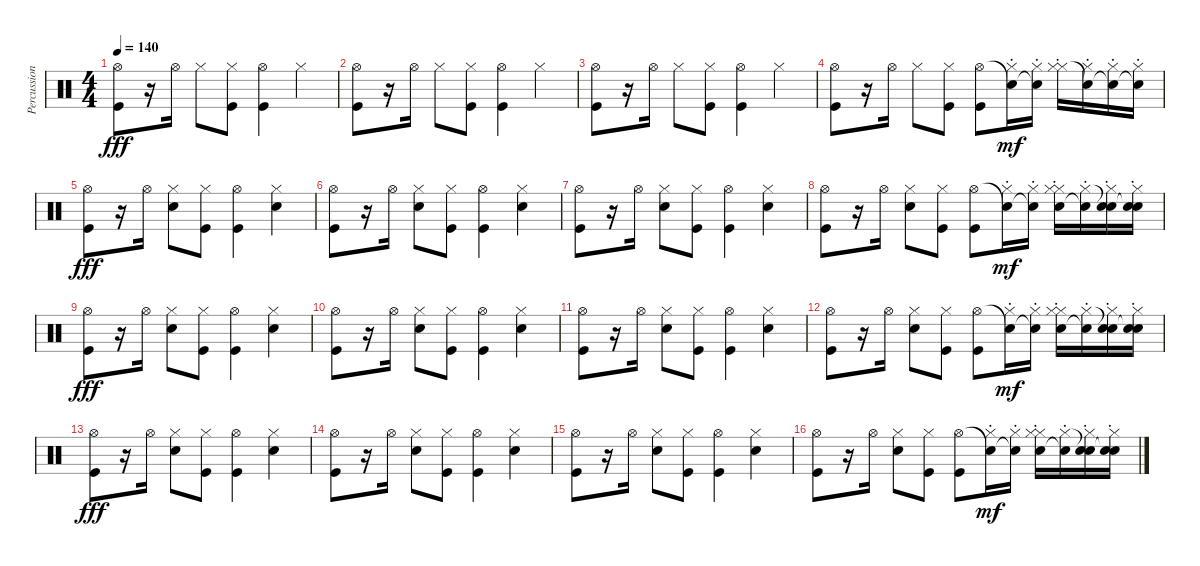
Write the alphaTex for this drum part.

\track ("Percussion" "Percussion") {instrument percussion}
\staff {score}
\articulation defaults
\ts (4 4)
\tempo 140
\clef neutral
\ks c
("Hi-Hat (open)" "Kick (hit)").8{dy fff} r.16 "Hi-Hat (open)".16 "Hi-Hat (closed)".8 ("Hi-Hat (closed)" "Kick (hit)").8 ("Hi-Hat (open)" "Kick (hit)").4 "Hi-Hat (closed)".4 |
("Hi-Hat (open)" "Kick (hit)").8 r.16 "Hi-Hat (open)".16 "Hi-Hat (closed)".8 ("Hi-Hat (closed)" "Kick (hit)").8 ("Hi-Hat (open)" "Kick (hit)").4 "Hi-Hat (closed)".4 |
("Hi-Hat (open)" "Kick (hit)").8 r.16 "Hi-Hat (open)".16 "Hi-Hat (closed)".8 ("Hi-Hat (closed)" "Kick (hit)").8 ("Hi-Hat (open)" "Kick (hit)").4 "Hi-Hat (closed)".4 |
("Hi-Hat (open)" "Kick (hit)").8 r.16 "Hi-Hat (open)".16 "Hi-Hat (closed)".8 ("Hi-Hat (closed)" "Kick (hit)").8 ("Hi-Hat (open)" "Kick (hit)").8 ("Snare (hit)"{t} "Hi-Hat (closed)"{st}).16{dy mf} ("Snare (hit)"{t} "Hi-Hat (closed)"{st}).16 ("Hi-Hat (closed)" "Hi-Hat (closed)"{st}).16 ("Snare (hit)"{t} "Hi-Hat (closed)"{st}).16 ("Snare (hit)"{t} "Hi-Hat (closed)"{st}).16 ("Snare (hit)"{t} "Hi-Hat (closed)"{st}).16 |
("Hi-Hat (open)" "Kick (hit)").8{dy fff volume 15} r.16 "Hi-Hat (open)".16 ("Snare (hit) 2" "Hi-Hat (closed)").8 ("Hi-Hat (closed)" "Kick (hit)").8 ("Hi-Hat (open)" "Kick (hit)").4 ("Snare (hit) 2" "Hi-Hat (closed)").4 |
("Hi-Hat (open)" "Kick (hit)").8 r.16 "Hi-Hat (open)".16 ("Snare (hit) 2" "Hi-Hat (closed)").8 ("Hi-Hat (closed)" "Kick (hit)").8 ("Hi-Hat (open)" "Kick (hit)").4 ("Snare (hit) 2" "Hi-Hat (closed)").4 |
("Hi-Hat (open)" "Kick (hit)").8 r.16 "Hi-Hat (open)".16 ("Snare (hit) 2" "Hi-Hat (closed)").8 ("Hi-Hat (closed)" "Kick (hit)").8 ("Hi-Hat (open)" "Kick (hit)").4 ("Snare (hit) 2" "Hi-Hat (closed)").4 |
("Hi-Hat (open)" "Kick (hit)").8 r.16 "Hi-Hat (open)".16 ("Snare (hit) 2" "Hi-Hat (closed)").8 ("Hi-Hat (closed)" "Kick (hit)").8 ("Hi-Hat (open)" "Kick (hit)").8 ("Snare (hit)"{t} "Hi-Hat (closed)"{st}).16{dy mf} ("Snare (hit)"{t} "Hi-Hat (closed)"{st}).16 ("Snare (hit) 2" "Hi-Hat (closed)" "Hi-Hat (closed)"{st}).16 ("Snare (hit)"{t} "Hi-Hat (closed)"{st}).16 ("Snare (hit) 2" "Snare (hit)"{t} "Hi-Hat (closed)"{st}).16 ("Snare (hit) 2" "Snare (hit)"{t} "Hi-Hat (closed)"{st}).16 |
("Hi-Hat (open)" "Kick (hit)").8{dy fff} r.16 "Hi-Hat (open)".16 ("Snare (hit) 2" "Hi-Hat (closed)").8 ("Hi-Hat (closed)" "Kick (hit)").8 ("Hi-Hat (open)" "Kick (hit)").4 ("Snare (hit) 2" "Hi-Hat (closed)").4 |
("Hi-Hat (open)" "Kick (hit)").8 r.16 "Hi-Hat (open)".16 ("Snare (hit) 2" "Hi-Hat (closed)").8 ("Hi-Hat (closed)" "Kick (hit)").8 ("Hi-Hat (open)" "Kick (hit)").4 ("Snare (hit) 2" "Hi-Hat (closed)").4 |
("Hi-Hat (open)" "Kick (hit)").8 r.16 "Hi-Hat (open)".16 ("Snare (hit) 2" "Hi-Hat (closed)").8 ("Hi-Hat (closed)" "Kick (hit)").8 ("Hi-Hat (open)" "Kick (hit)").4 ("Snare (hit) 2" "Hi-Hat (closed)").4 |
("Hi-Hat (open)" "Kick (hit)").8 r.16 "Hi-Hat (open)".16 ("Snare (hit) 2" "Hi-Hat (closed)").8 ("Hi-Hat (closed)" "Kick (hit)").8 ("Hi-Hat (open)" "Kick (hit)").8 ("Snare (hit)"{t} "Hi-Hat (closed)"{st}).16{dy mf} ("Snare (hit)"{t} "Hi-Hat (closed)"{st}).16 ("Snare (hit) 2" "Hi-Hat (closed)" "Hi-Hat (closed)"{st}).16 ("Snare (hit)"{t} "Hi-Hat (closed)"{st}).16 ("Snare (hit) 2" "Snare (hit)"{t} "Hi-Hat (closed)"{st}).16 ("Snare (hit) 2" "Snare (hit)"{t} "Hi-Hat (closed)"{st}).16 |
("Hi-Hat (open)" "Kick (hit)").8{dy fff volume 15} r.16 "Hi-Hat (open)".16 ("Snare (hit) 2" "Hi-Hat (closed)").8 ("Hi-Hat (closed)" "Kick (hit)").8 ("Hi-Hat (open)" "Kick (hit)").4 ("Snare (hit) 2" "Hi-Hat (closed)").4 |
("Hi-Hat (open)" "Kick (hit)").8 r.16 "Hi-Hat (open)".16 ("Snare (hit) 2" "Hi-Hat (closed)").8 ("Hi-Hat (closed)" "Kick (hit)").8 ("Hi-Hat (open)" "Kick (hit)").4 ("Snare (hit) 2" "Hi-Hat (closed)").4 |
("Hi-Hat (open)" "Kick (hit)").8 r.16 "Hi-Hat (open)".16 ("Snare (hit) 2" "Hi-Hat (closed)").8 ("Hi-Hat (closed)" "Kick (hit)").8 ("Hi-Hat (open)" "Kick (hit)").4 ("Snare (hit) 2" "Hi-Hat (closed)").4 |
("Hi-Hat (open)" "Kick (hit)").8 r.16 "Hi-Hat (open)".16 ("Snare (hit) 2" "Hi-Hat (closed)").8 ("Hi-Hat (closed)" "Kick (hit)").8 ("Hi-Hat (open)" "Kick (hit)").8 ("Snare (hit)"{t} "Hi-Hat (closed)"{st}).16{dy mf} ("Snare (hit)"{t} "Hi-Hat (closed)"{st}).16 ("Snare (hit) 2" "Hi-Hat (closed)" "Hi-Hat (closed)"{st}).16 ("Snare (hit)"{t} "Hi-Hat (closed)"{st}).16 ("Snare (hit) 2" "Snare (hit)"{t} "Hi-Hat (closed)"{st}).16 ("Snare (hit) 2" "Snare (hit)"{t} "Hi-Hat (closed)"{st}).16
